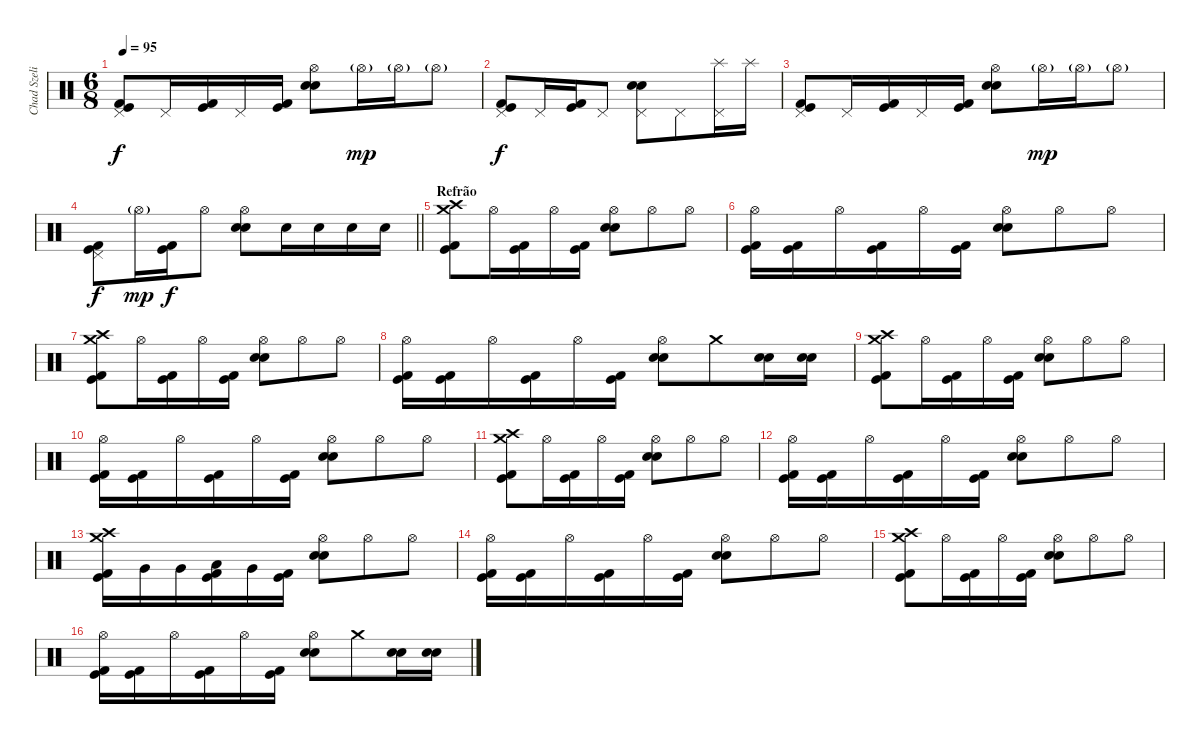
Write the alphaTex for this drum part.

\track ("Chad Szeliga" "Chad Szeli") {instrument percussion}
\staff {score}
\articulation defaults
\ts (6 8)
\tempo 95
\clef neutral
\ks c
("Kick (hit) 2" "Kick (hit)" "Pedal Hi-Hat (hit)").8{dy f} "Pedal Hi-Hat (hit)".16 ("Kick (hit) 2" "Kick (hit)").16 "Pedal Hi-Hat (hit)".16 ("Kick (hit) 2" "Kick (hit)").16 ("Snare (hit) 2" "Snare (hit) 2" "Hi-Hat (open)").8 "Hi-Hat (open)"{g}.16{dy mp} "Hi-Hat (open)"{g}.16 "Hi-Hat (open)"{g}.8 |
("Kick (hit) 2" "Kick (hit)" "Pedal Hi-Hat (hit)").8{dy f} "Pedal Hi-Hat (hit)".16 ("Kick (hit) 2" "Kick (hit)").16 "Pedal Hi-Hat (hit)".8 ("Snare (hit) 2" "Snare (hit) 2" "Pedal Hi-Hat (hit)").8 "Pedal Hi-Hat (hit)".8 ("Splash (hit)" "Pedal Hi-Hat (hit)").16 "Splash (hit)".16 |
("Kick (hit) 2" "Kick (hit)" "Pedal Hi-Hat (hit)").8 "Pedal Hi-Hat (hit)".16 ("Kick (hit) 2" "Kick (hit)").16 "Pedal Hi-Hat (hit)".16 ("Kick (hit) 2" "Kick (hit)").16 ("Snare (hit) 2" "Snare (hit) 2" "Hi-Hat (open)").8 "Hi-Hat (open)"{g}.16{dy mp} "Hi-Hat (open)"{g}.16 "Hi-Hat (open)"{g}.8 |
\barLineRight lightlight
("Kick (hit) 2" "Kick (hit)" "Pedal Hi-Hat (hit)").8{dy f} "Hi-Hat (open)"{g}.16{dy mp} ("Kick (hit) 2" "Kick (hit)").16{dy f} "Hi-Hat (open)".8 ("Snare (hit) 2" "Snare (hit) 2" "Hi-Hat (open)").8 "Snare (hit) 2".16 "Snare (hit) 2".16 "Snare (hit) 2".16 "Snare (hit) 2".16 |
\section ("" "Refrão")
("Crash high (hit)" "Kick (hit) 2" "Kick (hit)" "Crash medium (hit)").8 "Hi-Hat (open)".16 ("Kick (hit) 2" "Kick (hit)").16 "Hi-Hat (open)".16 ("Kick (hit) 2" "Kick (hit)").16 ("Snare (hit) 2" "Snare (hit) 2" "Hi-Hat (open)").8 "Hi-Hat (open)".8 "Hi-Hat (open)".8 |
("Kick (hit) 2" "Kick (hit)" "Hi-Hat (open)").16 ("Kick (hit) 2" "Kick (hit)").16 "Hi-Hat (open)".16 ("Kick (hit) 2" "Kick (hit)").16 "Hi-Hat (open)".16 ("Kick (hit) 2" "Kick (hit)").16 ("Snare (hit) 2" "Snare (hit) 2" "Hi-Hat (open)").8 "Hi-Hat (open)".8 "Hi-Hat (open)".8 |
("Crash high (hit)" "Kick (hit) 2" "Kick (hit)" "Crash medium (hit)").8 "Hi-Hat (open)".16 ("Kick (hit) 2" "Kick (hit)").16 "Hi-Hat (open)".16 ("Kick (hit) 2" "Kick (hit)").16 ("Snare (hit) 2" "Snare (hit) 2" "Hi-Hat (open)").8 "Hi-Hat (open)".8 "Hi-Hat (open)".8 |
("Kick (hit) 2" "Kick (hit)" "Hi-Hat (open)").16 ("Kick (hit) 2" "Kick (hit)").16 "Hi-Hat (open)".16 ("Kick (hit) 2" "Kick (hit)").16 "Hi-Hat (open)".16 ("Kick (hit) 2" "Kick (hit)").16 ("Snare (hit) 2" "Snare (hit) 2" "Hi-Hat (open)").8 "Crash medium (hit)".8 ("Snare (hit) 2" "Snare (hit) 2").16 ("Snare (hit) 2" "Snare (hit) 2").16 |
("Crash high (hit)" "Kick (hit) 2" "Kick (hit)" "Crash medium (hit)").8 "Hi-Hat (open)".16 ("Kick (hit) 2" "Kick (hit)").16 "Hi-Hat (open)".16 ("Kick (hit) 2" "Kick (hit)").16 ("Snare (hit) 2" "Snare (hit) 2" "Hi-Hat (open)").8 "Hi-Hat (open)".8 "Hi-Hat (open)".8 |
("Kick (hit) 2" "Kick (hit)" "Hi-Hat (open)").16 ("Kick (hit) 2" "Kick (hit)").16 "Hi-Hat (open)".16 ("Kick (hit) 2" "Kick (hit)").16 "Hi-Hat (open)".16 ("Kick (hit) 2" "Kick (hit)").16 ("Snare (hit) 2" "Snare (hit) 2" "Hi-Hat (open)").8 "Hi-Hat (open)".8 "Hi-Hat (open)".8 |
("Crash high (hit)" "Kick (hit) 2" "Kick (hit)" "Crash medium (hit)").8 "Hi-Hat (open)".16 ("Kick (hit) 2" "Kick (hit)").16 "Hi-Hat (open)".16 ("Kick (hit) 2" "Kick (hit)").16 ("Snare (hit) 2" "Snare (hit) 2" "Hi-Hat (open)").8 "Hi-Hat (open)".8 "Hi-Hat (open)".8 |
("Kick (hit) 2" "Kick (hit)" "Hi-Hat (open)").16 ("Kick (hit) 2" "Kick (hit)").16 "Hi-Hat (open)".16 ("Kick (hit) 2" "Kick (hit)").16 "Hi-Hat (open)".16 ("Kick (hit) 2" "Kick (hit)").16 ("Snare (hit) 2" "Snare (hit) 2" "Hi-Hat (open)").8 "Hi-Hat (open)".8 "Hi-Hat (open)".8 |
("Crash high (hit)" "Kick (hit) 2" "Kick (hit)" "Crash medium (hit)").16 "Very Low Tom (hit)".16 "Very Low Tom (hit)".16 ("Kick (hit) 2" "Kick (hit)" "Low Tom (hit)").16 "Very Low Tom (hit)".16 ("Kick (hit) 2" "Kick (hit)").16 ("Snare (hit) 2" "Snare (hit) 2" "Hi-Hat (open)").8 "Hi-Hat (open)".8 "Hi-Hat (open)".8 |
("Kick (hit) 2" "Kick (hit)" "Hi-Hat (open)").16 ("Kick (hit) 2" "Kick (hit)").16 "Hi-Hat (open)".16 ("Kick (hit) 2" "Kick (hit)").16 "Hi-Hat (open)".16 ("Kick (hit) 2" "Kick (hit)").16 ("Snare (hit) 2" "Snare (hit) 2" "Hi-Hat (open)").8 "Hi-Hat (open)".8 "Hi-Hat (open)".8 |
("Crash high (hit)" "Kick (hit) 2" "Kick (hit)" "Crash medium (hit)").8 "Hi-Hat (open)".16 ("Kick (hit) 2" "Kick (hit)").16 "Hi-Hat (open)".16 ("Kick (hit) 2" "Kick (hit)").16 ("Snare (hit) 2" "Snare (hit) 2" "Hi-Hat (open)").8 "Hi-Hat (open)".8 "Hi-Hat (open)".8 |
("Kick (hit) 2" "Kick (hit)" "Hi-Hat (open)").16 ("Kick (hit) 2" "Kick (hit)").16 "Hi-Hat (open)".16 ("Kick (hit) 2" "Kick (hit)").16 "Hi-Hat (open)".16 ("Kick (hit) 2" "Kick (hit)").16 ("Snare (hit) 2" "Snare (hit) 2" "Hi-Hat (open)").8 "Crash medium (hit)".8 ("Snare (hit) 2" "Snare (hit) 2").16 ("Snare (hit) 2" "Snare (hit) 2").16
